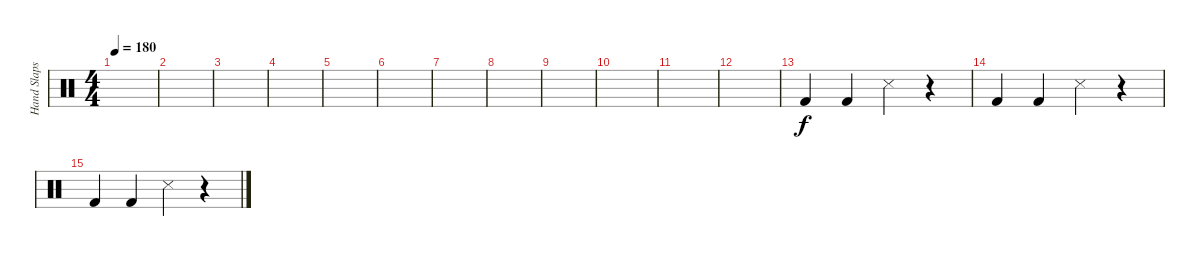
\track ("Hand Slaps on guitar" "Hand Slaps") {instrument percussion}
\staff {score}
\articulation defaults
\ts (4 4)
\tempo 180
\clef neutral
\ks c
|
|
|
|
|
|
|
|
|
|
|
|
"Kick (hit) 2".4 "Kick (hit) 2".4 "Metronome (hit)".4 r.4 |
"Kick (hit) 2".4 "Kick (hit) 2".4 "Metronome (hit)".4 r.4 |
"Kick (hit) 2".4 "Kick (hit) 2".4 "Metronome (hit)".4 r.4
